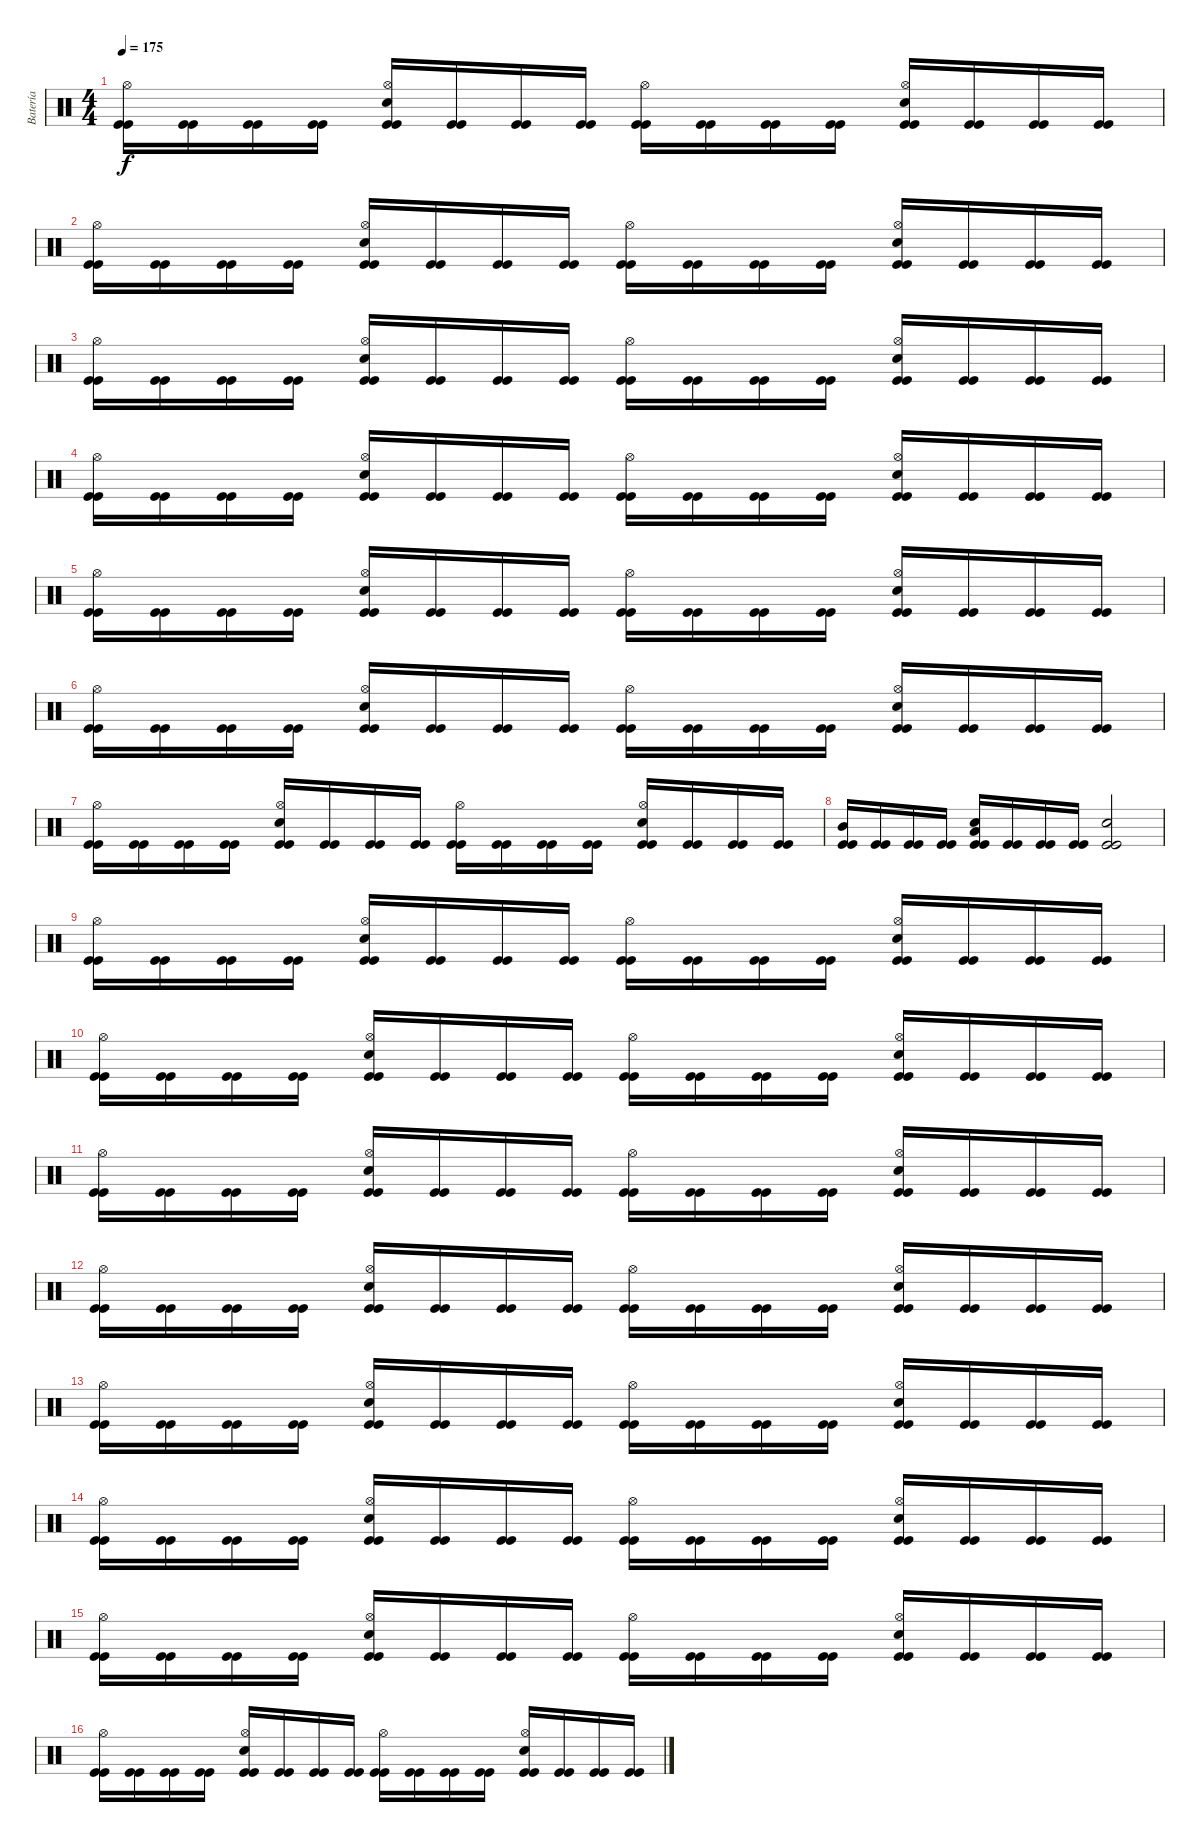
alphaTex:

\track ("Batería" "Batería") {instrument percussion}
\staff {score}
\articulation defaults
\ts (4 4)
\tempo 175
\clef neutral
\ks c
("Kick (hit)" "Kick (hit)" "Hi-Hat (open)").16{dy f} ("Kick (hit)" "Kick (hit)").16 ("Kick (hit)" "Kick (hit)").16 ("Kick (hit)" "Kick (hit)").16 ("Kick (hit)" "Kick (hit)" "Snare (hit) 2" "Hi-Hat (open)").16 ("Kick (hit)" "Kick (hit)").16 ("Kick (hit)" "Kick (hit)").16 ("Kick (hit)" "Kick (hit)").16 ("Kick (hit)" "Kick (hit)" "Hi-Hat (open)").16 ("Kick (hit)" "Kick (hit)").16 ("Kick (hit)" "Kick (hit)").16 ("Kick (hit)" "Kick (hit)").16 ("Kick (hit)" "Kick (hit)" "Snare (hit) 2" "Hi-Hat (open)").16 ("Kick (hit)" "Kick (hit)").16 ("Kick (hit)" "Kick (hit)").16 ("Kick (hit)" "Kick (hit)").16 |
("Kick (hit)" "Kick (hit)" "Hi-Hat (open)").16 ("Kick (hit)" "Kick (hit)").16 ("Kick (hit)" "Kick (hit)").16 ("Kick (hit)" "Kick (hit)").16 ("Kick (hit)" "Kick (hit)" "Snare (hit) 2" "Hi-Hat (open)").16 ("Kick (hit)" "Kick (hit)").16 ("Kick (hit)" "Kick (hit)").16 ("Kick (hit)" "Kick (hit)").16 ("Kick (hit)" "Kick (hit)" "Hi-Hat (open)").16 ("Kick (hit)" "Kick (hit)").16 ("Kick (hit)" "Kick (hit)").16 ("Kick (hit)" "Kick (hit)").16 ("Kick (hit)" "Kick (hit)" "Snare (hit) 2" "Hi-Hat (open)").16 ("Kick (hit)" "Kick (hit)").16 ("Kick (hit)" "Kick (hit)").16 ("Kick (hit)" "Kick (hit)").16 |
("Kick (hit)" "Kick (hit)" "Hi-Hat (open)").16 ("Kick (hit)" "Kick (hit)").16 ("Kick (hit)" "Kick (hit)").16 ("Kick (hit)" "Kick (hit)").16 ("Kick (hit)" "Kick (hit)" "Snare (hit) 2" "Hi-Hat (open)").16 ("Kick (hit)" "Kick (hit)").16 ("Kick (hit)" "Kick (hit)").16 ("Kick (hit)" "Kick (hit)").16 ("Kick (hit)" "Kick (hit)" "Hi-Hat (open)").16 ("Kick (hit)" "Kick (hit)").16 ("Kick (hit)" "Kick (hit)").16 ("Kick (hit)" "Kick (hit)").16 ("Kick (hit)" "Kick (hit)" "Snare (hit) 2" "Hi-Hat (open)").16 ("Kick (hit)" "Kick (hit)").16 ("Kick (hit)" "Kick (hit)").16 ("Kick (hit)" "Kick (hit)").16 |
("Kick (hit)" "Kick (hit)" "Hi-Hat (open)").16 ("Kick (hit)" "Kick (hit)").16 ("Kick (hit)" "Kick (hit)").16 ("Kick (hit)" "Kick (hit)").16 ("Kick (hit)" "Kick (hit)" "Snare (hit) 2" "Hi-Hat (open)").16 ("Kick (hit)" "Kick (hit)").16 ("Kick (hit)" "Kick (hit)").16 ("Kick (hit)" "Kick (hit)").16 ("Kick (hit)" "Kick (hit)" "Hi-Hat (open)").16 ("Kick (hit)" "Kick (hit)").16 ("Kick (hit)" "Kick (hit)").16 ("Kick (hit)" "Kick (hit)").16 ("Kick (hit)" "Kick (hit)" "Snare (hit) 2" "Hi-Hat (open)").16 ("Kick (hit)" "Kick (hit)").16 ("Kick (hit)" "Kick (hit)").16 ("Kick (hit)" "Kick (hit)").16 |
("Kick (hit)" "Kick (hit)" "Hi-Hat (open)").16 ("Kick (hit)" "Kick (hit)").16 ("Kick (hit)" "Kick (hit)").16 ("Kick (hit)" "Kick (hit)").16 ("Kick (hit)" "Kick (hit)" "Snare (hit) 2" "Hi-Hat (open)").16 ("Kick (hit)" "Kick (hit)").16 ("Kick (hit)" "Kick (hit)").16 ("Kick (hit)" "Kick (hit)").16 ("Kick (hit)" "Kick (hit)" "Hi-Hat (open)").16 ("Kick (hit)" "Kick (hit)").16 ("Kick (hit)" "Kick (hit)").16 ("Kick (hit)" "Kick (hit)").16 ("Kick (hit)" "Kick (hit)" "Snare (hit) 2" "Hi-Hat (open)").16 ("Kick (hit)" "Kick (hit)").16 ("Kick (hit)" "Kick (hit)").16 ("Kick (hit)" "Kick (hit)").16 |
("Kick (hit)" "Kick (hit)" "Hi-Hat (open)").16 ("Kick (hit)" "Kick (hit)").16 ("Kick (hit)" "Kick (hit)").16 ("Kick (hit)" "Kick (hit)").16 ("Kick (hit)" "Kick (hit)" "Snare (hit) 2" "Hi-Hat (open)").16 ("Kick (hit)" "Kick (hit)").16 ("Kick (hit)" "Kick (hit)").16 ("Kick (hit)" "Kick (hit)").16 ("Kick (hit)" "Kick (hit)" "Hi-Hat (open)").16 ("Kick (hit)" "Kick (hit)").16 ("Kick (hit)" "Kick (hit)").16 ("Kick (hit)" "Kick (hit)").16 ("Kick (hit)" "Kick (hit)" "Snare (hit) 2" "Hi-Hat (open)").16 ("Kick (hit)" "Kick (hit)").16 ("Kick (hit)" "Kick (hit)").16 ("Kick (hit)" "Kick (hit)").16 |
("Kick (hit)" "Kick (hit)" "Hi-Hat (open)").16 ("Kick (hit)" "Kick (hit)").16 ("Kick (hit)" "Kick (hit)").16 ("Kick (hit)" "Kick (hit)").16 ("Kick (hit)" "Kick (hit)" "Snare (hit) 2" "Hi-Hat (open)").16 ("Kick (hit)" "Kick (hit)").16 ("Kick (hit)" "Kick (hit)").16 ("Kick (hit)" "Kick (hit)").16 ("Kick (hit)" "Kick (hit)" "Hi-Hat (open)").16 ("Kick (hit)" "Kick (hit)").16 ("Kick (hit)" "Kick (hit)").16 ("Kick (hit)" "Kick (hit)").16 ("Kick (hit)" "Kick (hit)" "Snare (hit) 2" "Hi-Hat (open)").16 ("Kick (hit)" "Kick (hit)").16 ("Kick (hit)" "Kick (hit)").16 ("Kick (hit)" "Kick (hit)").16 |
("Kick (hit)" "Kick (hit)" "Mid Tom (hit)").16 ("Kick (hit)" "Kick (hit)").16 ("Kick (hit)" "Kick (hit)").16 ("Kick (hit)" "Kick (hit)").16 ("Kick (hit)" "Kick (hit)" "Snare (hit) 2" "Low Tom (hit)").16 ("Kick (hit)" "Kick (hit)").16 ("Kick (hit)" "Kick (hit)").16 ("Kick (hit)" "Kick (hit)").16 ("Kick (hit)" "Kick (hit)" "Electric Snare (hit)").2 |
("Kick (hit)" "Kick (hit)" "Hi-Hat (open)").16 ("Kick (hit)" "Kick (hit)").16 ("Kick (hit)" "Kick (hit)").16 ("Kick (hit)" "Kick (hit)").16 ("Kick (hit)" "Kick (hit)" "Snare (hit) 2" "Hi-Hat (open)").16 ("Kick (hit)" "Kick (hit)").16 ("Kick (hit)" "Kick (hit)").16 ("Kick (hit)" "Kick (hit)").16 ("Kick (hit)" "Kick (hit)" "Hi-Hat (open)").16 ("Kick (hit)" "Kick (hit)").16 ("Kick (hit)" "Kick (hit)").16 ("Kick (hit)" "Kick (hit)").16 ("Kick (hit)" "Kick (hit)" "Snare (hit) 2" "Hi-Hat (open)").16 ("Kick (hit)" "Kick (hit)").16 ("Kick (hit)" "Kick (hit)").16 ("Kick (hit)" "Kick (hit)").16 |
("Kick (hit)" "Kick (hit)" "Hi-Hat (open)").16 ("Kick (hit)" "Kick (hit)").16 ("Kick (hit)" "Kick (hit)").16 ("Kick (hit)" "Kick (hit)").16 ("Kick (hit)" "Kick (hit)" "Snare (hit) 2" "Hi-Hat (open)").16 ("Kick (hit)" "Kick (hit)").16 ("Kick (hit)" "Kick (hit)").16 ("Kick (hit)" "Kick (hit)").16 ("Kick (hit)" "Kick (hit)" "Hi-Hat (open)").16 ("Kick (hit)" "Kick (hit)").16 ("Kick (hit)" "Kick (hit)").16 ("Kick (hit)" "Kick (hit)").16 ("Kick (hit)" "Kick (hit)" "Snare (hit) 2" "Hi-Hat (open)").16 ("Kick (hit)" "Kick (hit)").16 ("Kick (hit)" "Kick (hit)").16 ("Kick (hit)" "Kick (hit)").16 |
("Kick (hit)" "Kick (hit)" "Hi-Hat (open)").16 ("Kick (hit)" "Kick (hit)").16 ("Kick (hit)" "Kick (hit)").16 ("Kick (hit)" "Kick (hit)").16 ("Kick (hit)" "Kick (hit)" "Snare (hit) 2" "Hi-Hat (open)").16 ("Kick (hit)" "Kick (hit)").16 ("Kick (hit)" "Kick (hit)").16 ("Kick (hit)" "Kick (hit)").16 ("Kick (hit)" "Kick (hit)" "Hi-Hat (open)").16 ("Kick (hit)" "Kick (hit)").16 ("Kick (hit)" "Kick (hit)").16 ("Kick (hit)" "Kick (hit)").16 ("Kick (hit)" "Kick (hit)" "Snare (hit) 2" "Hi-Hat (open)").16 ("Kick (hit)" "Kick (hit)").16 ("Kick (hit)" "Kick (hit)").16 ("Kick (hit)" "Kick (hit)").16 |
("Kick (hit)" "Kick (hit)" "Hi-Hat (open)").16 ("Kick (hit)" "Kick (hit)").16 ("Kick (hit)" "Kick (hit)").16 ("Kick (hit)" "Kick (hit)").16 ("Kick (hit)" "Kick (hit)" "Snare (hit) 2" "Hi-Hat (open)").16 ("Kick (hit)" "Kick (hit)").16 ("Kick (hit)" "Kick (hit)").16 ("Kick (hit)" "Kick (hit)").16 ("Kick (hit)" "Kick (hit)" "Hi-Hat (open)").16 ("Kick (hit)" "Kick (hit)").16 ("Kick (hit)" "Kick (hit)").16 ("Kick (hit)" "Kick (hit)").16 ("Kick (hit)" "Kick (hit)" "Snare (hit) 2" "Hi-Hat (open)").16 ("Kick (hit)" "Kick (hit)").16 ("Kick (hit)" "Kick (hit)").16 ("Kick (hit)" "Kick (hit)").16 |
("Kick (hit)" "Kick (hit)" "Hi-Hat (open)").16 ("Kick (hit)" "Kick (hit)").16 ("Kick (hit)" "Kick (hit)").16 ("Kick (hit)" "Kick (hit)").16 ("Kick (hit)" "Kick (hit)" "Snare (hit) 2" "Hi-Hat (open)").16 ("Kick (hit)" "Kick (hit)").16 ("Kick (hit)" "Kick (hit)").16 ("Kick (hit)" "Kick (hit)").16 ("Kick (hit)" "Kick (hit)" "Hi-Hat (open)").16 ("Kick (hit)" "Kick (hit)").16 ("Kick (hit)" "Kick (hit)").16 ("Kick (hit)" "Kick (hit)").16 ("Kick (hit)" "Kick (hit)" "Snare (hit) 2" "Hi-Hat (open)").16 ("Kick (hit)" "Kick (hit)").16 ("Kick (hit)" "Kick (hit)").16 ("Kick (hit)" "Kick (hit)").16 |
("Kick (hit)" "Kick (hit)" "Hi-Hat (open)").16 ("Kick (hit)" "Kick (hit)").16 ("Kick (hit)" "Kick (hit)").16 ("Kick (hit)" "Kick (hit)").16 ("Kick (hit)" "Kick (hit)" "Snare (hit) 2" "Hi-Hat (open)").16 ("Kick (hit)" "Kick (hit)").16 ("Kick (hit)" "Kick (hit)").16 ("Kick (hit)" "Kick (hit)").16 ("Kick (hit)" "Kick (hit)" "Hi-Hat (open)").16 ("Kick (hit)" "Kick (hit)").16 ("Kick (hit)" "Kick (hit)").16 ("Kick (hit)" "Kick (hit)").16 ("Kick (hit)" "Kick (hit)" "Snare (hit) 2" "Hi-Hat (open)").16 ("Kick (hit)" "Kick (hit)").16 ("Kick (hit)" "Kick (hit)").16 ("Kick (hit)" "Kick (hit)").16 |
("Kick (hit)" "Kick (hit)" "Hi-Hat (open)").16 ("Kick (hit)" "Kick (hit)").16 ("Kick (hit)" "Kick (hit)").16 ("Kick (hit)" "Kick (hit)").16 ("Kick (hit)" "Kick (hit)" "Snare (hit) 2" "Hi-Hat (open)").16 ("Kick (hit)" "Kick (hit)").16 ("Kick (hit)" "Kick (hit)").16 ("Kick (hit)" "Kick (hit)").16 ("Kick (hit)" "Kick (hit)" "Hi-Hat (open)").16 ("Kick (hit)" "Kick (hit)").16 ("Kick (hit)" "Kick (hit)").16 ("Kick (hit)" "Kick (hit)").16 ("Kick (hit)" "Kick (hit)" "Snare (hit) 2" "Hi-Hat (open)").16 ("Kick (hit)" "Kick (hit)").16 ("Kick (hit)" "Kick (hit)").16 ("Kick (hit)" "Kick (hit)").16 |
("Kick (hit)" "Kick (hit)" "Hi-Hat (open)").16 ("Kick (hit)" "Kick (hit)").16 ("Kick (hit)" "Kick (hit)").16 ("Kick (hit)" "Kick (hit)").16 ("Kick (hit)" "Kick (hit)" "Snare (hit) 2" "Hi-Hat (open)").16 ("Kick (hit)" "Kick (hit)").16 ("Kick (hit)" "Kick (hit)").16 ("Kick (hit)" "Kick (hit)").16 ("Kick (hit)" "Kick (hit)" "Hi-Hat (open)").16 ("Kick (hit)" "Kick (hit)").16 ("Kick (hit)" "Kick (hit)").16 ("Kick (hit)" "Kick (hit)").16 ("Kick (hit)" "Kick (hit)" "Snare (hit) 2" "Hi-Hat (open)").16 ("Kick (hit)" "Kick (hit)").16 ("Kick (hit)" "Kick (hit)").16 ("Kick (hit)" "Kick (hit)").16
